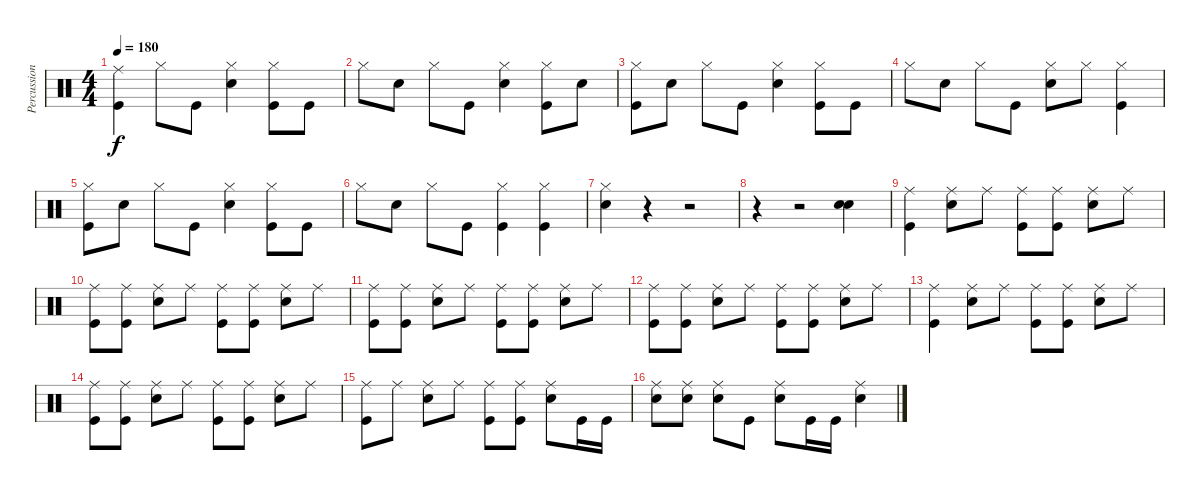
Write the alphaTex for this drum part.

\track ("Percussion" "Percussion") {instrument percussion}
\staff {score}
\articulation defaults
\ts (4 4)
\tempo 180
\clef neutral
\ks c
("Ride (middle)" "Kick (hit)").4{dy f} "Hi-Hat (closed)".8 "Kick (hit)".8 ("Hi-Hat (closed)" "Snare (hit) 2").4 ("Hi-Hat (closed)" "Kick (hit)").8 "Kick (hit)".8 |
"Hi-Hat (closed)".8 "Snare (hit) 2".8 "Hi-Hat (closed)".8 "Kick (hit)".8 ("Hi-Hat (closed)" "Snare (hit) 2").4 ("Hi-Hat (closed)" "Kick (hit)").8 "Snare (hit) 2".8 |
("Hi-Hat (closed)" "Kick (hit)").8 "Snare (hit) 2".8 "Hi-Hat (closed)".8 "Kick (hit)".8 ("Hi-Hat (closed)" "Snare (hit) 2").4 ("Hi-Hat (closed)" "Kick (hit)").8 "Kick (hit)".8 |
"Hi-Hat (closed)".8 "Snare (hit) 2".8 "Hi-Hat (closed)".8 "Kick (hit)".8 ("Hi-Hat (closed)" "Snare (hit) 2").8 "Hi-Hat (closed)".8 ("Hi-Hat (closed)" "Kick (hit)").4 |
("Hi-Hat (closed)" "Kick (hit)").8 "Snare (hit) 2".8 "Hi-Hat (closed)".8 "Kick (hit)".8 ("Hi-Hat (closed)" "Snare (hit) 2").4 ("Hi-Hat (closed)" "Kick (hit)").8 "Kick (hit)".8 |
"Hi-Hat (closed)".8 "Snare (hit) 2".8 "Hi-Hat (closed)".8 "Kick (hit)".8 ("Hi-Hat (closed)" "Kick (hit)").4 ("Hi-Hat (closed)" "Kick (hit)").4 |
("Hi-Hat (closed)" "Snare (hit) 2").4 r.4 r.2 |
r.4 r.2 ("Snare (hit) 2" "Electric Snare (hit)").4 |
("Ride (middle)" "Kick (hit)").4 ("Ride (middle)" "Snare (hit) 2").8 "Ride (middle)".8 ("Ride (middle)" "Kick (hit)").8 ("Ride (middle)" "Kick (hit)").8 ("Ride (middle)" "Snare (hit) 2").8 "Ride (middle)".8 |
("Ride (middle)" "Kick (hit)").8 ("Ride (middle)" "Kick (hit)").8 ("Ride (middle)" "Snare (hit) 2").8 "Ride (middle)".8 ("Ride (middle)" "Kick (hit)").8 ("Ride (middle)" "Kick (hit)").8 ("Ride (middle)" "Snare (hit) 2").8 "Ride (middle)".8 |
("Ride (middle)" "Kick (hit)").8 ("Ride (middle)" "Kick (hit)").8 ("Ride (middle)" "Snare (hit) 2").8 "Ride (middle)".8 ("Ride (middle)" "Kick (hit)").8 ("Ride (middle)" "Kick (hit)").8 ("Ride (middle)" "Snare (hit) 2").8 "Ride (middle)".8 |
("Ride (middle)" "Kick (hit)").8 ("Ride (middle)" "Kick (hit)").8 ("Ride (middle)" "Snare (hit) 2").8 "Ride (middle)".8 ("Ride (middle)" "Kick (hit)").8 ("Ride (middle)" "Kick (hit)").8 ("Ride (middle)" "Snare (hit) 2").8 "Ride (middle)".8 |
("Ride (middle)" "Kick (hit)").4 ("Ride (middle)" "Snare (hit) 2").8 "Ride (middle)".8 ("Ride (middle)" "Kick (hit)").8 ("Ride (middle)" "Kick (hit)").8 ("Ride (middle)" "Snare (hit) 2").8 "Ride (middle)".8 |
("Ride (middle)" "Kick (hit)").8 ("Ride (middle)" "Kick (hit)").8 ("Ride (middle)" "Snare (hit) 2").8 "Ride (middle)".8 ("Ride (middle)" "Kick (hit)").8 ("Ride (middle)" "Kick (hit)").8 ("Ride (middle)" "Snare (hit) 2").8 "Ride (middle)".8 |
("Ride (middle)" "Kick (hit)").8 "Ride (middle)".8 ("Ride (middle)" "Snare (hit) 2").8 "Ride (middle)".8 ("Ride (middle)" "Kick (hit)").8 ("Ride (middle)" "Kick (hit)").8 ("Ride (middle)" "Snare (hit) 2").8 "Kick (hit)".16 "Kick (hit)".16 |
("Ride (middle)" "Snare (hit) 2").8 ("Ride (middle)" "Snare (hit) 2").8 ("Ride (middle)" "Snare (hit) 2").8 "Kick (hit)".8 ("Ride (middle)" "Snare (hit) 2").8 "Kick (hit)".16 "Kick (hit)".16 ("Ride (middle)" "Snare (hit) 2").4
